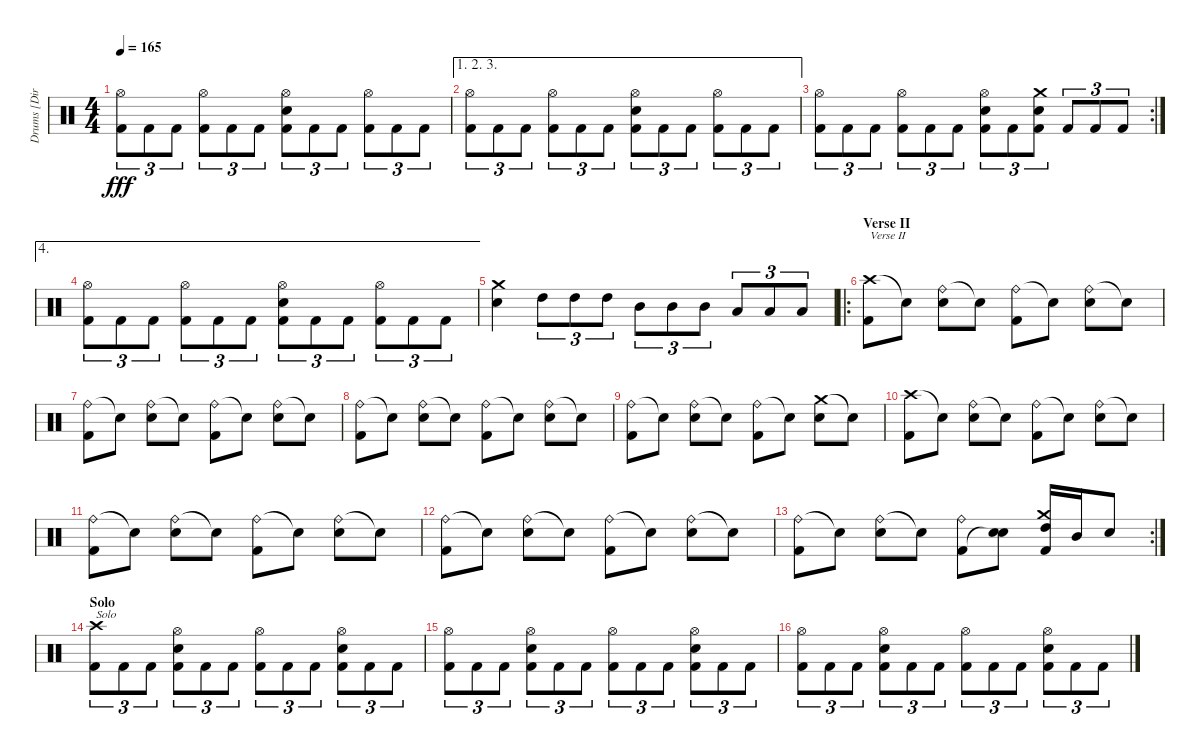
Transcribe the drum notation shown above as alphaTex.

\track ("Drums [Dirge Rep]" "Drums [Dir") {instrument percussion}
\staff {score}
\articulation defaults
\ts (4 4)
\tempo 165
\clef neutral
\ks c
("Hi-Hat (open)" "Kick (hit) 2").8{tu (3 2) dy fff} "Kick (hit) 2".8{tu (3 2)} "Kick (hit) 2".8{tu (3 2)} ("Hi-Hat (open)" "Kick (hit) 2").8{tu (3 2)} "Kick (hit) 2".8{tu (3 2)} "Kick (hit) 2".8{tu (3 2)} ("Hi-Hat (open)" "Electric Snare (hit)" "Kick (hit) 2").8{tu (3 2)} "Kick (hit) 2".8{tu (3 2)} "Kick (hit) 2".8{tu (3 2)} ("Hi-Hat (open)" "Kick (hit) 2").8{tu (3 2)} "Kick (hit) 2".8{tu (3 2)} "Kick (hit) 2".8{tu (3 2)} |
\ae (1 2 3)
("Hi-Hat (open)" "Kick (hit) 2").8{tu (3 2)} "Kick (hit) 2".8{tu (3 2)} "Kick (hit) 2".8{tu (3 2)} ("Hi-Hat (open)" "Kick (hit) 2").8{tu (3 2)} "Kick (hit) 2".8{tu (3 2)} "Kick (hit) 2".8{tu (3 2)} ("Hi-Hat (open)" "Electric Snare (hit)" "Kick (hit) 2").8{tu (3 2)} "Kick (hit) 2".8{tu (3 2)} "Kick (hit) 2".8{tu (3 2)} ("Hi-Hat (open)" "Kick (hit) 2").8{tu (3 2)} "Kick (hit) 2".8{tu (3 2)} "Kick (hit) 2".8{tu (3 2)} |
\rc 2
("Hi-Hat (open)" "Kick (hit) 2").8{tu (3 2)} "Kick (hit) 2".8{tu (3 2)} "Kick (hit) 2".8{tu (3 2)} ("Hi-Hat (open)" "Kick (hit) 2").8{tu (3 2)} "Kick (hit) 2".8{tu (3 2)} "Kick (hit) 2".8{tu (3 2)} ("Hi-Hat (open)" "Electric Snare (hit)" "Kick (hit) 2").8{tu (3 2)} "Kick (hit) 2".8{tu (3 2)} ("Crash medium (hit)" "Electric Snare (hit)" "Kick (hit) 2").8{tu (3 2)} "Kick (hit) 2".8{tu (3 2)} "Kick (hit) 2".8{tu (3 2)} "Kick (hit) 2".8{tu (3 2)} |
\ae 4
("Hi-Hat (open)" "Kick (hit) 2").8{tu (3 2)} "Kick (hit) 2".8{tu (3 2)} "Kick (hit) 2".8{tu (3 2)} ("Hi-Hat (open)" "Kick (hit) 2").8{tu (3 2)} "Kick (hit) 2".8{tu (3 2)} "Kick (hit) 2".8{tu (3 2)} ("Hi-Hat (open)" "Electric Snare (hit)" "Kick (hit) 2").8{tu (3 2)} "Kick (hit) 2".8{tu (3 2)} "Kick (hit) 2".8{tu (3 2)} ("Hi-Hat (open)" "Kick (hit) 2").8{tu (3 2)} "Kick (hit) 2".8{tu (3 2)} "Kick (hit) 2".8{tu (3 2)} |
("Crash medium (hit)" "Electric Snare (hit)").4 "High Tom (hit)".8{tu (3 2)} "High Tom (hit)".8{tu (3 2)} "High Tom (hit)".8{tu (3 2)} "Mid Tom (hit)".8{tu (3 2)} "Mid Tom (hit)".8{tu (3 2)} "Mid Tom (hit)".8{tu (3 2)} "Low Tom (hit)".8{tu (3 2)} "Low Tom (hit)".8{tu (3 2)} "Low Tom (hit)".8{tu (3 2)} |
\ro
\section ("" "Verse II")
("Crash high (hit)" "Kick (hit) 2").8{txt "Verse II"} "Snare (hit)"{t}.8 ("Ride (bell)" "Electric Snare (hit)").8 "Snare (hit)"{t}.8 ("Ride (bell)" "Kick (hit) 2").8 "Snare (hit)"{t}.8 ("Ride (bell)" "Electric Snare (hit)").8 "Snare (hit)"{t}.8 |
("Ride (bell)" "Kick (hit) 2").8 "Snare (hit)"{t}.8 ("Ride (bell)" "Electric Snare (hit)").8 "Snare (hit)"{t}.8 ("Ride (bell)" "Kick (hit) 2").8 "Snare (hit)"{t}.8 ("Ride (bell)" "Electric Snare (hit)").8 "Snare (hit)"{t}.8 |
("Ride (bell)" "Kick (hit) 2").8 "Snare (hit)"{t}.8 ("Ride (bell)" "Electric Snare (hit)").8 "Snare (hit)"{t}.8 ("Ride (bell)" "Kick (hit) 2").8 "Snare (hit)"{t}.8 ("Ride (bell)" "Electric Snare (hit)").8 "Snare (hit)"{t}.8 |
("Ride (bell)" "Kick (hit) 2").8 "Snare (hit)"{t}.8 ("Ride (bell)" "Electric Snare (hit)").8 "Snare (hit)"{t}.8 ("Ride (bell)" "Kick (hit) 2").8 "Snare (hit)"{t}.8 ("Crash medium (hit)" "Electric Snare (hit)").8 "Snare (hit)"{t}.8 |
("Crash high (hit)" "Kick (hit) 2").8 "Snare (hit)"{t}.8 ("Ride (bell)" "Electric Snare (hit)").8 "Snare (hit)"{t}.8 ("Ride (bell)" "Kick (hit) 2").8 "Snare (hit)"{t}.8 ("Ride (bell)" "Electric Snare (hit)").8 "Snare (hit)"{t}.8 |
("Ride (bell)" "Kick (hit) 2").8 "Snare (hit)"{t}.8 ("Ride (bell)" "Electric Snare (hit)").8 "Snare (hit)"{t}.8 ("Ride (bell)" "Kick (hit) 2").8 "Snare (hit)"{t}.8 ("Ride (bell)" "Electric Snare (hit)").8 "Snare (hit)"{t}.8 |
("Ride (bell)" "Kick (hit) 2").8 "Snare (hit)"{t}.8 ("Ride (bell)" "Electric Snare (hit)").8 "Snare (hit)"{t}.8 ("Ride (bell)" "Kick (hit) 2").8 "Snare (hit)"{t}.8 ("Ride (bell)" "Electric Snare (hit)").8 "Snare (hit)"{t}.8 |
\rc 2
("Ride (bell)" "Kick (hit) 2").8 "Snare (hit)"{t}.8 ("Ride (bell)" "Electric Snare (hit)").8 "Snare (hit)"{t}.8 ("Ride (bell)" "Kick (hit) 2").8 ("Electric Snare (hit)" "Snare (hit)"{t}).8 ("Crash medium (hit)" "High Tom (hit)" "Kick (hit) 2").16 "Mid Tom (hit)".16 "Electric Snare (hit)".8 |
\section ("" "Solo")
("Crash high (hit)" "Kick (hit) 2").8{tu (3 2) txt "Solo"} "Kick (hit) 2".8{tu (3 2)} "Kick (hit) 2".8{tu (3 2)} ("Hi-Hat (open)" "Electric Snare (hit)" "Kick (hit) 2").8{tu (3 2)} "Kick (hit) 2".8{tu (3 2)} "Kick (hit) 2".8{tu (3 2)} ("Hi-Hat (open)" "Kick (hit) 2").8{tu (3 2)} "Kick (hit) 2".8{tu (3 2)} "Kick (hit) 2".8{tu (3 2)} ("Hi-Hat (open)" "Electric Snare (hit)" "Kick (hit) 2").8{tu (3 2)} "Kick (hit) 2".8{tu (3 2)} "Kick (hit) 2".8{tu (3 2)} |
("Hi-Hat (open)" "Kick (hit) 2").8{tu (3 2)} "Kick (hit) 2".8{tu (3 2)} "Kick (hit) 2".8{tu (3 2)} ("Hi-Hat (open)" "Electric Snare (hit)" "Kick (hit) 2").8{tu (3 2)} "Kick (hit) 2".8{tu (3 2)} "Kick (hit) 2".8{tu (3 2)} ("Hi-Hat (open)" "Kick (hit) 2").8{tu (3 2)} "Kick (hit) 2".8{tu (3 2)} "Kick (hit) 2".8{tu (3 2)} ("Hi-Hat (open)" "Electric Snare (hit)" "Kick (hit) 2").8{tu (3 2)} "Kick (hit) 2".8{tu (3 2)} "Kick (hit) 2".8{tu (3 2)} |
("Hi-Hat (open)" "Kick (hit) 2").8{tu (3 2)} "Kick (hit) 2".8{tu (3 2)} "Kick (hit) 2".8{tu (3 2)} ("Hi-Hat (open)" "Electric Snare (hit)" "Kick (hit) 2").8{tu (3 2)} "Kick (hit) 2".8{tu (3 2)} "Kick (hit) 2".8{tu (3 2)} ("Hi-Hat (open)" "Kick (hit) 2").8{tu (3 2)} "Kick (hit) 2".8{tu (3 2)} "Kick (hit) 2".8{tu (3 2)} ("Hi-Hat (open)" "Electric Snare (hit)" "Kick (hit) 2").8{tu (3 2)} "Kick (hit) 2".8{tu (3 2)} "Kick (hit) 2".8{tu (3 2)}
